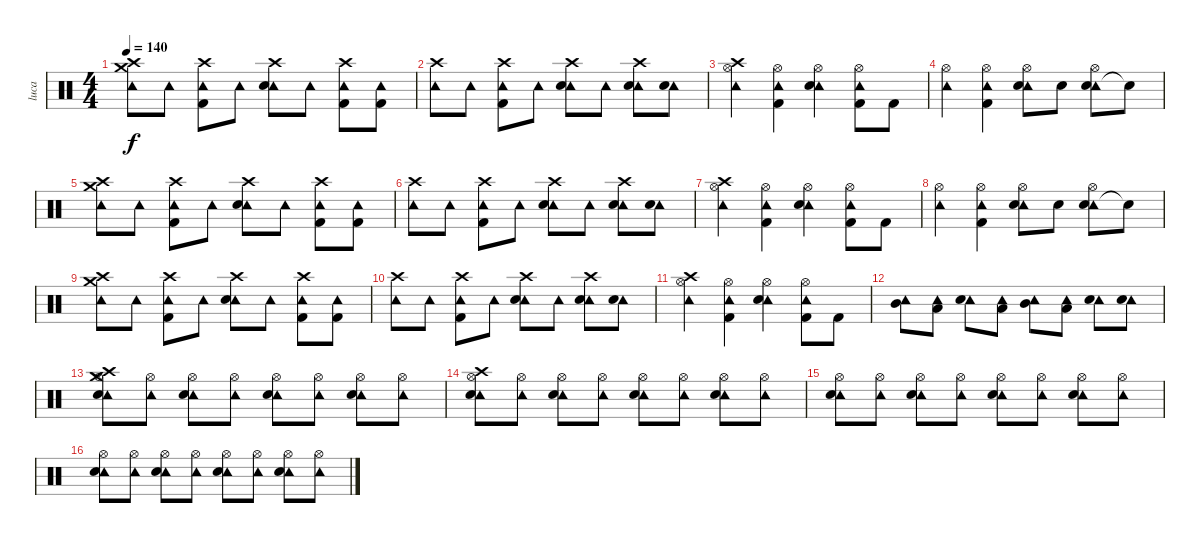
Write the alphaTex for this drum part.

\track ("luca" "luca") {instrument percussion}
\staff {score}
\articulation defaults
\ts (4 4)
\tempo 140
\clef neutral
\ks c
("Crash medium (hit)" "Crash high (hit)" "Tambourine (hit)").8{dy f} "Tambourine (hit)".8 ("Tambourine (hit)" "Crash high (hit)" "Kick (hit) 2").8 "Tambourine (hit)".8 ("Tambourine (hit)" "Crash high (hit)" "Snare (hit) 2").8 "Tambourine (hit)".8 ("Tambourine (hit)" "Crash high (hit)" "Kick (hit) 2").8 ("Tambourine (hit)" "Kick (hit) 2").8 |
("Tambourine (hit)" "Crash high (hit)").8 "Tambourine (hit)".8 ("Tambourine (hit)" "Crash high (hit)" "Kick (hit) 2").8 "Tambourine (hit)".8 ("Tambourine (hit)" "Crash high (hit)" "Snare (hit) 2").8 "Tambourine (hit)".8 ("Tambourine (hit)" "Crash high (hit)" "Snare (hit) 2").8 ("Tambourine (hit)" "Snare (hit) 2").8 |
("Crash high (hit)" "Hi-Hat (open)" "Tambourine (hit)").4 ("Tambourine (hit)" "Hi-Hat (open)" "Kick (hit) 2").4 ("Tambourine (hit)" "Hi-Hat (open)" "Snare (hit) 2").4 ("Tambourine (hit)" "Hi-Hat (open)" "Kick (hit) 2").8 "Kick (hit) 2".8 |
("Tambourine (hit)" "Hi-Hat (open)").4 ("Tambourine (hit)" "Hi-Hat (open)" "Kick (hit) 2").4 ("Tambourine (hit)" "Hi-Hat (open)" "Snare (hit) 2").8 "Snare (hit) 2".8 ("Tambourine (hit)" "Hi-Hat (open)" "Snare (hit) 2").8 "Snare (hit)"{t}.8 |
("Crash medium (hit)" "Crash high (hit)" "Tambourine (hit)").8 "Tambourine (hit)".8 ("Tambourine (hit)" "Crash high (hit)" "Kick (hit) 2").8 "Tambourine (hit)".8 ("Tambourine (hit)" "Crash high (hit)" "Snare (hit) 2").8 "Tambourine (hit)".8 ("Tambourine (hit)" "Crash high (hit)" "Kick (hit) 2").8 ("Tambourine (hit)" "Kick (hit) 2").8 |
("Tambourine (hit)" "Crash high (hit)").8 "Tambourine (hit)".8 ("Tambourine (hit)" "Crash high (hit)" "Kick (hit) 2").8 "Tambourine (hit)".8 ("Tambourine (hit)" "Crash high (hit)" "Snare (hit) 2").8 "Tambourine (hit)".8 ("Tambourine (hit)" "Crash high (hit)" "Snare (hit) 2").8 ("Tambourine (hit)" "Snare (hit) 2").8 |
("Crash high (hit)" "Hi-Hat (open)" "Tambourine (hit)").4 ("Tambourine (hit)" "Hi-Hat (open)" "Kick (hit) 2").4 ("Tambourine (hit)" "Hi-Hat (open)" "Snare (hit) 2").4 ("Tambourine (hit)" "Hi-Hat (open)" "Kick (hit) 2").8 "Kick (hit) 2".8 |
("Tambourine (hit)" "Hi-Hat (open)").4 ("Tambourine (hit)" "Hi-Hat (open)" "Kick (hit) 2").4 ("Tambourine (hit)" "Hi-Hat (open)" "Snare (hit) 2").8 "Snare (hit) 2".8 ("Tambourine (hit)" "Hi-Hat (open)" "Snare (hit) 2").8 "Snare (hit)"{t}.8 |
("Crash medium (hit)" "Crash high (hit)" "Tambourine (hit)").8 "Tambourine (hit)".8 ("Tambourine (hit)" "Crash high (hit)" "Kick (hit) 2").8 "Tambourine (hit)".8 ("Tambourine (hit)" "Crash high (hit)" "Snare (hit) 2").8 "Tambourine (hit)".8 ("Tambourine (hit)" "Crash high (hit)" "Kick (hit) 2").8 ("Tambourine (hit)" "Kick (hit) 2").8 |
("Tambourine (hit)" "Crash high (hit)").8 "Tambourine (hit)".8 ("Tambourine (hit)" "Crash high (hit)" "Kick (hit) 2").8 "Tambourine (hit)".8 ("Tambourine (hit)" "Crash high (hit)" "Snare (hit) 2").8 "Tambourine (hit)".8 ("Tambourine (hit)" "Crash high (hit)" "Snare (hit) 2").8 ("Tambourine (hit)" "Snare (hit) 2").8 |
("Crash high (hit)" "Hi-Hat (open)" "Tambourine (hit)").4 ("Tambourine (hit)" "Hi-Hat (open)" "Kick (hit) 2").4 ("Tambourine (hit)" "Hi-Hat (open)" "Snare (hit) 2").4 ("Tambourine (hit)" "Hi-Hat (open)" "Kick (hit) 2").8 "Kick (hit) 2".8 |
("Tambourine (hit)" "Mid Tom (hit)").8 ("Tambourine (hit)" "Low Floor Tom (hit)").8 ("Tambourine (hit)" "Snare (hit) 2").8 ("Tambourine (hit)" "Low Floor Tom (hit)").8 ("Tambourine (hit)" "Mid Tom (hit)").8 ("Tambourine (hit)" "Low Floor Tom (hit)").8 ("Tambourine (hit)" "Snare (hit) 2").8 ("Tambourine (hit)" "Snare (hit) 2").8 |
("Tambourine (hit)" "Hi-Hat (open)" "Crash high (hit)" "Crash medium (hit)" "Snare (hit) 2").8 ("Tambourine (hit)" "Hi-Hat (open)").8 ("Tambourine (hit)" "Hi-Hat (open)" "Snare (hit) 2").8 ("Tambourine (hit)" "Hi-Hat (open)").8 ("Tambourine (hit)" "Hi-Hat (open)" "Snare (hit) 2").8 ("Tambourine (hit)" "Hi-Hat (open)").8 ("Tambourine (hit)" "Hi-Hat (open)" "Snare (hit) 2").8 ("Tambourine (hit)" "Hi-Hat (open)").8 |
("Tambourine (hit)" "Hi-Hat (open)" "Crash high (hit)" "Snare (hit) 2").8 ("Tambourine (hit)" "Hi-Hat (open)").8 ("Tambourine (hit)" "Hi-Hat (open)" "Snare (hit) 2").8 ("Tambourine (hit)" "Hi-Hat (open)").8 ("Tambourine (hit)" "Hi-Hat (open)" "Snare (hit) 2").8 ("Tambourine (hit)" "Hi-Hat (open)").8 ("Tambourine (hit)" "Hi-Hat (open)" "Snare (hit) 2").8 ("Tambourine (hit)" "Hi-Hat (open)").8 |
("Tambourine (hit)" "Hi-Hat (open)" "Snare (hit) 2").8 ("Tambourine (hit)" "Hi-Hat (open)").8 ("Tambourine (hit)" "Hi-Hat (open)" "Snare (hit) 2").8 ("Tambourine (hit)" "Hi-Hat (open)").8 ("Tambourine (hit)" "Hi-Hat (open)" "Snare (hit) 2").8 ("Tambourine (hit)" "Hi-Hat (open)").8 ("Tambourine (hit)" "Hi-Hat (open)" "Snare (hit) 2").8 ("Tambourine (hit)" "Hi-Hat (open)").8 |
("Tambourine (hit)" "Hi-Hat (open)" "Snare (hit) 2").8 ("Tambourine (hit)" "Hi-Hat (open)").8 ("Tambourine (hit)" "Hi-Hat (open)" "Snare (hit) 2").8 ("Tambourine (hit)" "Hi-Hat (open)").8 ("Tambourine (hit)" "Hi-Hat (open)" "Snare (hit) 2").8 ("Tambourine (hit)" "Hi-Hat (open)").8 ("Tambourine (hit)" "Hi-Hat (open)" "Snare (hit) 2").8 ("Tambourine (hit)" "Hi-Hat (open)").8
